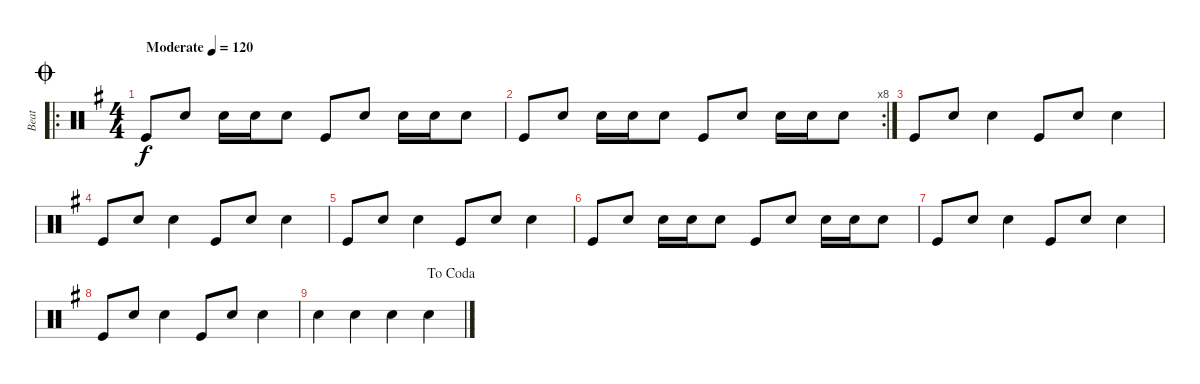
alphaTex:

\track ("Beat" "Beat") {instrument percussion}
\staff {score}
\articulation defaults
\ro
\ts (4 4)
\jump coda
\tempo (120 "Moderate")
\clef neutral
\ks g "Kick (hit)".8{dy f} "Electric Snare (hit)".8 "Electric Snare (hit)".16 "Electric Snare (hit)".16 "Electric Snare (hit)".8 "Kick (hit)".8 "Electric Snare (hit)".8 "Electric Snare (hit)".16 "Electric Snare (hit)".16 "Electric Snare (hit)".8
|
\rc 8 "Kick (hit)".8 "Electric Snare (hit)".8 "Electric Snare (hit)".16 "Electric Snare (hit)".16 "Electric Snare (hit)".8 "Kick (hit)".8 "Electric Snare (hit)".8 "Electric Snare (hit)".16 "Electric Snare (hit)".16 "Electric Snare (hit)".8
|
"Kick (hit)".8 "Electric Snare (hit)".8 "Electric Snare (hit)".4 "Kick (hit)".8 "Electric Snare (hit)".8 "Electric Snare (hit)".4 |
"Kick (hit)".8 "Electric Snare (hit)".8 "Electric Snare (hit)".4 "Kick (hit)".8 "Electric Snare (hit)".8 "Electric Snare (hit)".4 |
"Kick (hit)".8 "Electric Snare (hit)".8 "Electric Snare (hit)".4 "Kick (hit)".8 "Electric Snare (hit)".8 "Electric Snare (hit)".4 |
"Kick (hit)".8 "Electric Snare (hit)".8 "Electric Snare (hit)".16 "Electric Snare (hit)".16 "Electric Snare (hit)".8 "Kick (hit)".8 "Electric Snare (hit)".8 "Electric Snare (hit)".16 "Electric Snare (hit)".16 "Electric Snare (hit)".8 |
"Kick (hit)".8 "Electric Snare (hit)".8 "Electric Snare (hit)".4 "Kick (hit)".8 "Electric Snare (hit)".8 "Electric Snare (hit)".4 |
"Kick (hit)".8 "Electric Snare (hit)".8 "Electric Snare (hit)".4 "Kick (hit)".8 "Electric Snare (hit)".8 "Electric Snare (hit)".4 |
\jump dacoda "Electric Snare (hit)".4 "Electric Snare (hit)".4 "Electric Snare (hit)".4 "Electric Snare (hit)".4
